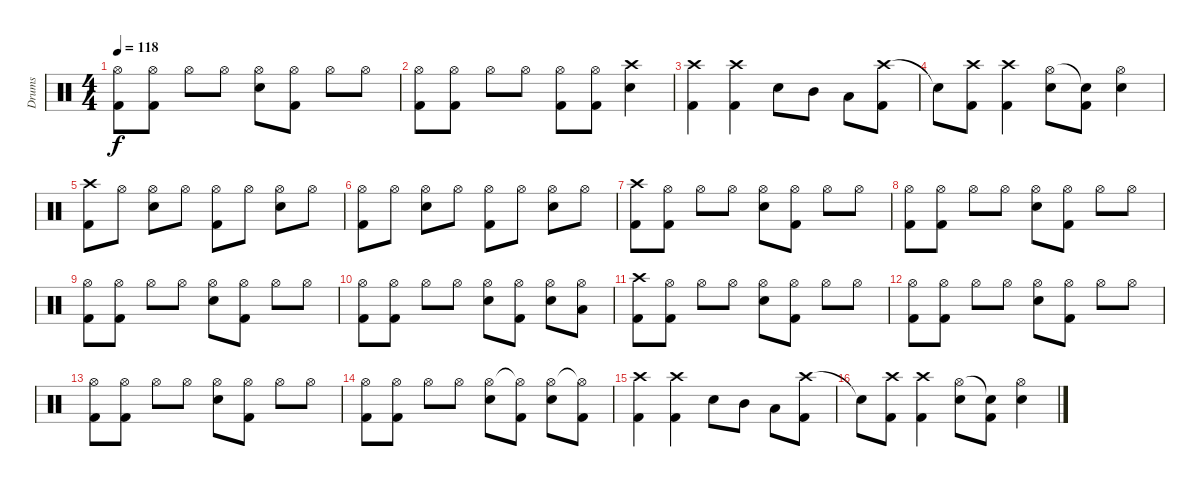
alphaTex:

\track ("Drums" "Drums") {instrument percussion}
\staff {score}
\articulation defaults
\ts (4 4)
\tempo 118
\clef neutral
\ks c
("Hi-Hat (open)" "Kick (hit) 2").8{dy f} ("Hi-Hat (open)" "Kick (hit) 2").8 "Hi-Hat (open)".8 "Hi-Hat (open)".8 ("Hi-Hat (open)" "Snare (hit) 2").8 ("Hi-Hat (open)" "Kick (hit) 2").8 "Hi-Hat (open)".8 "Hi-Hat (open)".8 |
("Hi-Hat (open)" "Kick (hit) 2").8 ("Hi-Hat (open)" "Kick (hit) 2").8 "Hi-Hat (open)".8 "Hi-Hat (open)".8 ("Hi-Hat (open)" "Kick (hit) 2").8 ("Hi-Hat (open)" "Kick (hit) 2").8 ("Crash high (hit)" "Snare (hit) 2").4 |
("Crash high (hit)" "Kick (hit) 2").4 ("Crash high (hit)" "Kick (hit) 2").4 "Snare (hit) 2".8 "Mid Tom (hit)".8 "Low Tom (hit)".8 ("Crash high (hit)" "Kick (hit) 2").8 |
"Snare (hit)"{t}.8 ("Crash high (hit)" "Kick (hit) 2").8 ("Crash high (hit)" "Kick (hit) 2").4 ("Hi-Hat (open)" "Snare (hit) 2").8 ("Snare (hit)"{t} "Kick (hit) 2").8 ("Hi-Hat (open)" "Snare (hit) 2").4 |
("Crash high (hit)" "Kick (hit) 2").8 "Hi-Hat (open)".8 ("Hi-Hat (open)" "Snare (hit) 2").8 "Hi-Hat (open)".8 ("Hi-Hat (open)" "Kick (hit) 2").8 "Hi-Hat (open)".8 ("Hi-Hat (open)" "Snare (hit) 2").8 "Hi-Hat (open)".8 |
("Hi-Hat (open)" "Kick (hit) 2").8 "Hi-Hat (open)".8 ("Hi-Hat (open)" "Snare (hit) 2").8 "Hi-Hat (open)".8 ("Hi-Hat (open)" "Kick (hit) 2").8 "Hi-Hat (open)".8 ("Hi-Hat (open)" "Snare (hit) 2").8 "Hi-Hat (open)".8 |
("Crash high (hit)" "Kick (hit) 2").8 ("Hi-Hat (open)" "Kick (hit) 2").8 "Hi-Hat (open)".8 "Hi-Hat (open)".8 ("Hi-Hat (open)" "Snare (hit) 2").8 ("Hi-Hat (open)" "Kick (hit) 2").8 "Hi-Hat (open)".8 "Hi-Hat (open)".8 |
("Hi-Hat (open)" "Kick (hit) 2").8 ("Hi-Hat (open)" "Kick (hit) 2").8 "Hi-Hat (open)".8 "Hi-Hat (open)".8 ("Hi-Hat (open)" "Snare (hit) 2").8 ("Hi-Hat (open)" "Kick (hit) 2").8 "Hi-Hat (open)".8 "Hi-Hat (open)".8 |
("Hi-Hat (open)" "Kick (hit) 2").8 ("Hi-Hat (open)" "Kick (hit) 2").8 "Hi-Hat (open)".8 "Hi-Hat (open)".8 ("Hi-Hat (open)" "Snare (hit) 2").8 ("Hi-Hat (open)" "Kick (hit) 2").8 "Hi-Hat (open)".8 "Hi-Hat (open)".8 |
("Hi-Hat (open)" "Kick (hit) 2").8 ("Hi-Hat (open)" "Kick (hit) 2").8 "Hi-Hat (open)".8 "Hi-Hat (open)".8 ("Hi-Hat (open)" "Snare (hit) 2").8 ("Hi-Hat (open)" "Kick (hit) 2").8 ("Hi-Hat (open)" "Snare (hit) 2").8 ("Hi-Hat (open)" "Low Tom (hit)").8 |
("Crash high (hit)" "Kick (hit) 2").8 ("Hi-Hat (open)" "Kick (hit) 2").8 "Hi-Hat (open)".8 "Hi-Hat (open)".8 ("Hi-Hat (open)" "Snare (hit) 2").8 ("Hi-Hat (open)" "Kick (hit) 2").8 "Hi-Hat (open)".8 "Hi-Hat (open)".8 |
("Hi-Hat (open)" "Kick (hit) 2").8 ("Hi-Hat (open)" "Kick (hit) 2").8 "Hi-Hat (open)".8 "Hi-Hat (open)".8 ("Hi-Hat (open)" "Snare (hit) 2").8 ("Hi-Hat (open)" "Kick (hit) 2").8 "Hi-Hat (open)".8 "Hi-Hat (open)".8 |
("Hi-Hat (open)" "Kick (hit) 2").8 ("Hi-Hat (open)" "Kick (hit) 2").8 "Hi-Hat (open)".8 "Hi-Hat (open)".8 ("Hi-Hat (open)" "Snare (hit) 2").8 ("Hi-Hat (open)" "Kick (hit) 2").8 "Hi-Hat (open)".8 "Hi-Hat (open)".8 |
("Hi-Hat (open)" "Kick (hit) 2").8 ("Hi-Hat (open)" "Kick (hit) 2").8 "Hi-Hat (open)".8 "Hi-Hat (open)".8 ("Hi-Hat (open)" "Snare (hit) 2").8 ("Hi-Hat (open)"{t} "Kick (hit) 2").8 ("Hi-Hat (open)" "Snare (hit) 2").8 ("Hi-Hat (open)"{t} "Kick (hit) 2").8 |
("Crash high (hit)" "Kick (hit) 2").4 ("Crash high (hit)" "Kick (hit) 2").4 "Snare (hit) 2".8 "Mid Tom (hit)".8 "Low Tom (hit)".8 ("Crash high (hit)" "Kick (hit) 2").8 |
"Snare (hit)"{t}.8 ("Crash high (hit)" "Kick (hit) 2").8 ("Crash high (hit)" "Kick (hit) 2").4 ("Hi-Hat (open)" "Snare (hit) 2").8 ("Snare (hit)"{t} "Kick (hit) 2").8 ("Hi-Hat (open)" "Snare (hit) 2").4
